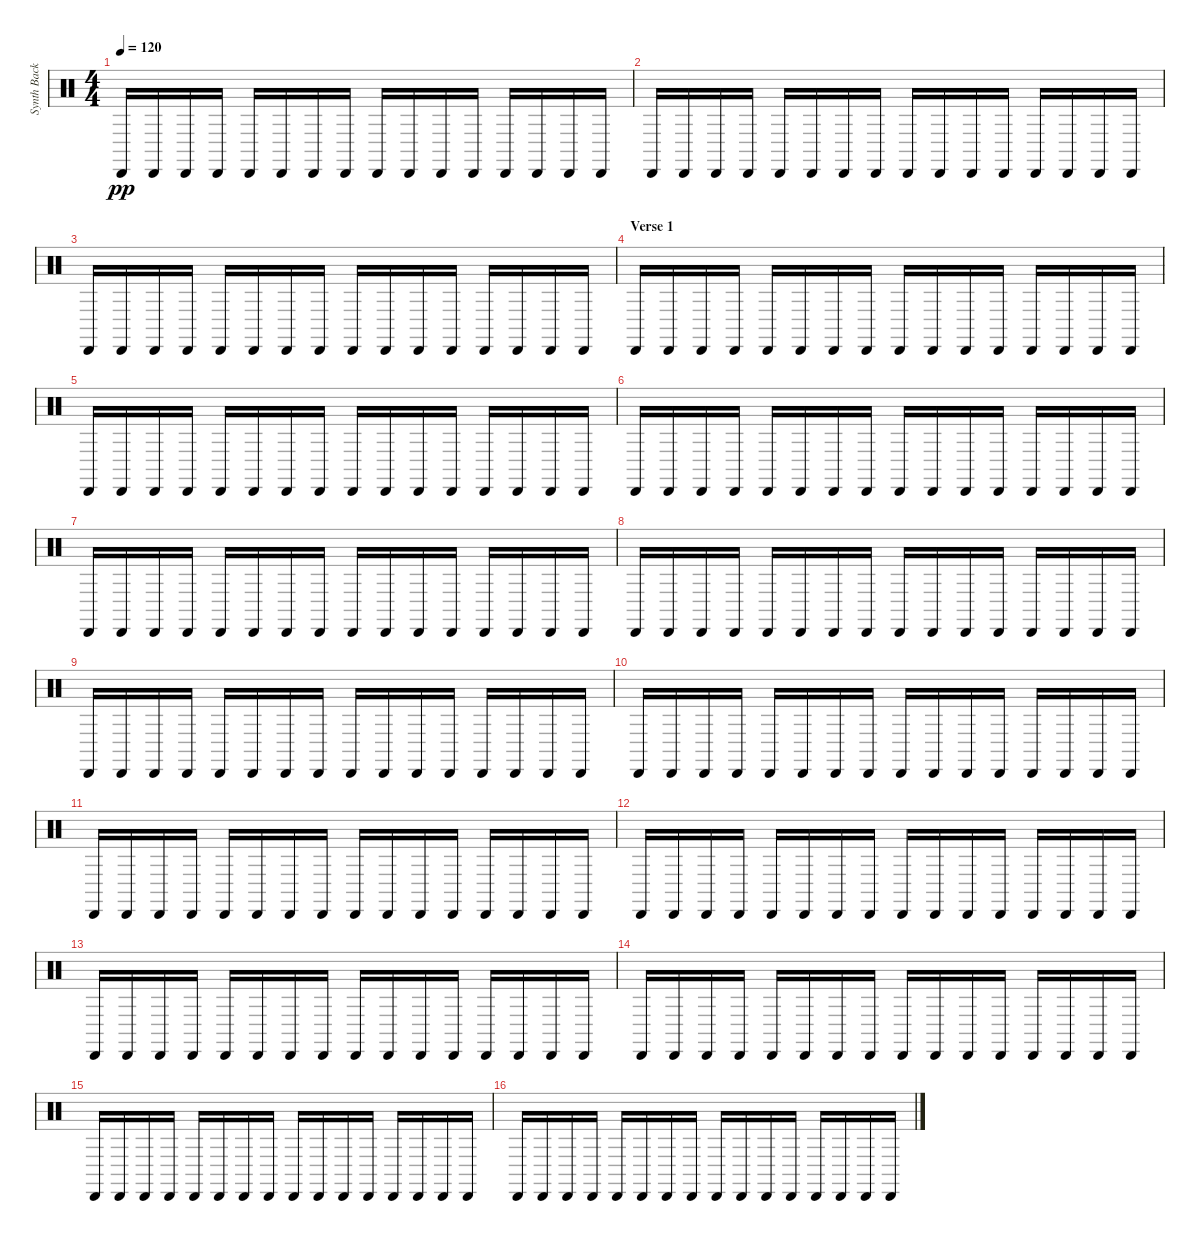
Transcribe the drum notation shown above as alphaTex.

\track ("Synth Background Rhythm" "Synth Back") {instrument percussion}
\staff {score}
\articulation defaults
\ts (4 4)
\tempo 120
\clef neutral
\ks c "Cabasa (hit)".16{dy pp} "Cabasa (hit)".16 "Cabasa (hit)".16 "Cabasa (hit)".16 "Cabasa (hit)".16 "Cabasa (hit)".16 "Cabasa (hit)".16 "Cabasa (hit)".16 "Cabasa (hit)".16 "Cabasa (hit)".16 "Cabasa (hit)".16 "Cabasa (hit)".16 "Cabasa (hit)".16 "Cabasa (hit)".16 "Cabasa (hit)".16 "Cabasa (hit)".16
|
"Cabasa (hit)".16 "Cabasa (hit)".16 "Cabasa (hit)".16 "Cabasa (hit)".16 "Cabasa (hit)".16 "Cabasa (hit)".16 "Cabasa (hit)".16 "Cabasa (hit)".16 "Cabasa (hit)".16 "Cabasa (hit)".16 "Cabasa (hit)".16 "Cabasa (hit)".16 "Cabasa (hit)".16 "Cabasa (hit)".16 "Cabasa (hit)".16 "Cabasa (hit)".16 |
"Cabasa (hit)".16 "Cabasa (hit)".16 "Cabasa (hit)".16 "Cabasa (hit)".16 "Cabasa (hit)".16 "Cabasa (hit)".16 "Cabasa (hit)".16 "Cabasa (hit)".16 "Cabasa (hit)".16 "Cabasa (hit)".16 "Cabasa (hit)".16 "Cabasa (hit)".16 "Cabasa (hit)".16 "Cabasa (hit)".16 "Cabasa (hit)".16 "Cabasa (hit)".16 |
\section ("" "Verse 1")
"Cabasa (hit)".16 "Cabasa (hit)".16 "Cabasa (hit)".16 "Cabasa (hit)".16 "Cabasa (hit)".16 "Cabasa (hit)".16 "Cabasa (hit)".16 "Cabasa (hit)".16 "Cabasa (hit)".16 "Cabasa (hit)".16 "Cabasa (hit)".16 "Cabasa (hit)".16 "Cabasa (hit)".16 "Cabasa (hit)".16 "Cabasa (hit)".16 "Cabasa (hit)".16 |
"Cabasa (hit)".16 "Cabasa (hit)".16 "Cabasa (hit)".16 "Cabasa (hit)".16 "Cabasa (hit)".16 "Cabasa (hit)".16 "Cabasa (hit)".16 "Cabasa (hit)".16 "Cabasa (hit)".16 "Cabasa (hit)".16 "Cabasa (hit)".16 "Cabasa (hit)".16 "Cabasa (hit)".16 "Cabasa (hit)".16 "Cabasa (hit)".16 "Cabasa (hit)".16 |
"Cabasa (hit)".16 "Cabasa (hit)".16 "Cabasa (hit)".16 "Cabasa (hit)".16 "Cabasa (hit)".16 "Cabasa (hit)".16 "Cabasa (hit)".16 "Cabasa (hit)".16 "Cabasa (hit)".16 "Cabasa (hit)".16 "Cabasa (hit)".16 "Cabasa (hit)".16 "Cabasa (hit)".16 "Cabasa (hit)".16 "Cabasa (hit)".16 "Cabasa (hit)".16 |
"Cabasa (hit)".16 "Cabasa (hit)".16 "Cabasa (hit)".16 "Cabasa (hit)".16 "Cabasa (hit)".16 "Cabasa (hit)".16 "Cabasa (hit)".16 "Cabasa (hit)".16 "Cabasa (hit)".16 "Cabasa (hit)".16 "Cabasa (hit)".16 "Cabasa (hit)".16 "Cabasa (hit)".16 "Cabasa (hit)".16 "Cabasa (hit)".16 "Cabasa (hit)".16 |
"Cabasa (hit)".16 "Cabasa (hit)".16 "Cabasa (hit)".16 "Cabasa (hit)".16 "Cabasa (hit)".16 "Cabasa (hit)".16 "Cabasa (hit)".16 "Cabasa (hit)".16 "Cabasa (hit)".16 "Cabasa (hit)".16 "Cabasa (hit)".16 "Cabasa (hit)".16 "Cabasa (hit)".16 "Cabasa (hit)".16 "Cabasa (hit)".16 "Cabasa (hit)".16 |
"Cabasa (hit)".16 "Cabasa (hit)".16 "Cabasa (hit)".16 "Cabasa (hit)".16 "Cabasa (hit)".16 "Cabasa (hit)".16 "Cabasa (hit)".16 "Cabasa (hit)".16 "Cabasa (hit)".16 "Cabasa (hit)".16 "Cabasa (hit)".16 "Cabasa (hit)".16 "Cabasa (hit)".16 "Cabasa (hit)".16 "Cabasa (hit)".16 "Cabasa (hit)".16 |
"Cabasa (hit)".16 "Cabasa (hit)".16 "Cabasa (hit)".16 "Cabasa (hit)".16 "Cabasa (hit)".16 "Cabasa (hit)".16 "Cabasa (hit)".16 "Cabasa (hit)".16 "Cabasa (hit)".16 "Cabasa (hit)".16 "Cabasa (hit)".16 "Cabasa (hit)".16 "Cabasa (hit)".16 "Cabasa (hit)".16 "Cabasa (hit)".16 "Cabasa (hit)".16 |
"Cabasa (hit)".16 "Cabasa (hit)".16 "Cabasa (hit)".16 "Cabasa (hit)".16 "Cabasa (hit)".16 "Cabasa (hit)".16 "Cabasa (hit)".16 "Cabasa (hit)".16 "Cabasa (hit)".16 "Cabasa (hit)".16 "Cabasa (hit)".16 "Cabasa (hit)".16 "Cabasa (hit)".16 "Cabasa (hit)".16 "Cabasa (hit)".16 "Cabasa (hit)".16 |
"Cabasa (hit)".16 "Cabasa (hit)".16 "Cabasa (hit)".16 "Cabasa (hit)".16 "Cabasa (hit)".16 "Cabasa (hit)".16 "Cabasa (hit)".16 "Cabasa (hit)".16 "Cabasa (hit)".16 "Cabasa (hit)".16 "Cabasa (hit)".16 "Cabasa (hit)".16 "Cabasa (hit)".16 "Cabasa (hit)".16 "Cabasa (hit)".16 "Cabasa (hit)".16 |
"Cabasa (hit)".16 "Cabasa (hit)".16 "Cabasa (hit)".16 "Cabasa (hit)".16 "Cabasa (hit)".16 "Cabasa (hit)".16 "Cabasa (hit)".16 "Cabasa (hit)".16 "Cabasa (hit)".16 "Cabasa (hit)".16 "Cabasa (hit)".16 "Cabasa (hit)".16 "Cabasa (hit)".16 "Cabasa (hit)".16 "Cabasa (hit)".16 "Cabasa (hit)".16 |
"Cabasa (hit)".16 "Cabasa (hit)".16 "Cabasa (hit)".16 "Cabasa (hit)".16 "Cabasa (hit)".16 "Cabasa (hit)".16 "Cabasa (hit)".16 "Cabasa (hit)".16 "Cabasa (hit)".16 "Cabasa (hit)".16 "Cabasa (hit)".16 "Cabasa (hit)".16 "Cabasa (hit)".16 "Cabasa (hit)".16 "Cabasa (hit)".16 "Cabasa (hit)".16 |
"Cabasa (hit)".16 "Cabasa (hit)".16 "Cabasa (hit)".16 "Cabasa (hit)".16 "Cabasa (hit)".16 "Cabasa (hit)".16 "Cabasa (hit)".16 "Cabasa (hit)".16 "Cabasa (hit)".16 "Cabasa (hit)".16 "Cabasa (hit)".16 "Cabasa (hit)".16 "Cabasa (hit)".16 "Cabasa (hit)".16 "Cabasa (hit)".16 "Cabasa (hit)".16 |
"Cabasa (hit)".16 "Cabasa (hit)".16 "Cabasa (hit)".16 "Cabasa (hit)".16 "Cabasa (hit)".16 "Cabasa (hit)".16 "Cabasa (hit)".16 "Cabasa (hit)".16 "Cabasa (hit)".16 "Cabasa (hit)".16 "Cabasa (hit)".16 "Cabasa (hit)".16 "Cabasa (hit)".16 "Cabasa (hit)".16 "Cabasa (hit)".16 "Cabasa (hit)".16
